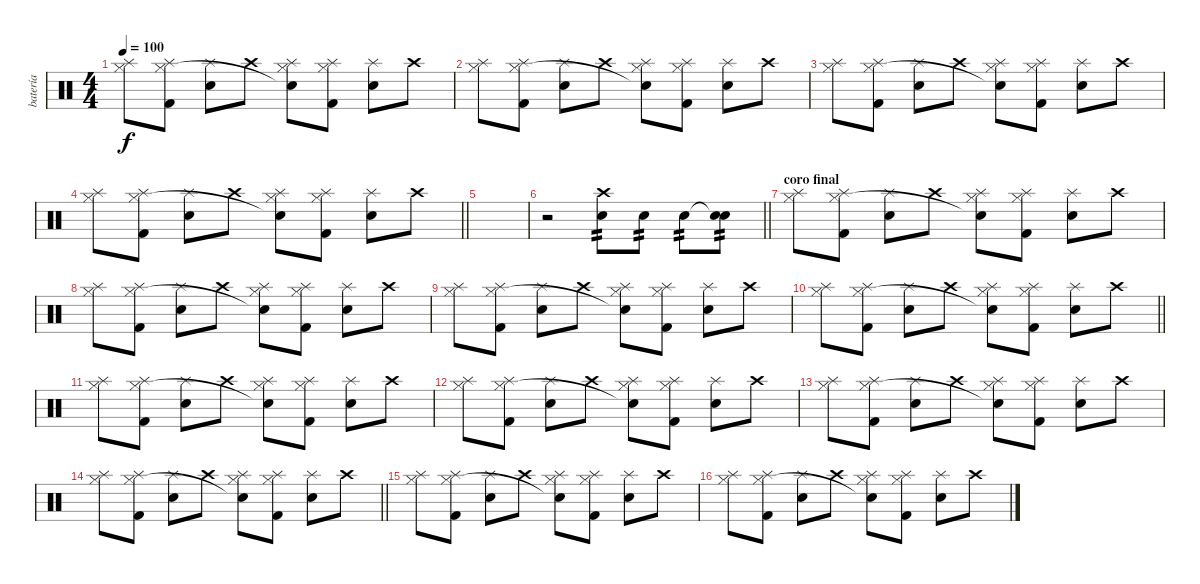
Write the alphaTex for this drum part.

\track ("batería" "batería") {instrument percussion}
\staff {score}
\articulation defaults
\ts (4 4)
\tempo 100
\clef neutral
\ks c
("Splash (hit)" "Hi-Hat (closed)").8{dy f} ("Kick (hit) 2" "Splash (hit)" "Hi-Hat (closed)").8 ("Splash (hit)" "Snare (hit) 2").8 "Crash high (hit)".8 ("Splash (hit)" "Hi-Hat (closed)" "Snare (hit)"{t}).8 ("Kick (hit) 2" "Splash (hit)" "Hi-Hat (closed)").8 ("Splash (hit)" "Snare (hit) 2").8 "Crash high (hit)".8 |
("Splash (hit)" "Hi-Hat (closed)").8 ("Kick (hit) 2" "Splash (hit)" "Hi-Hat (closed)").8 ("Splash (hit)" "Snare (hit) 2").8 "Crash high (hit)".8 ("Splash (hit)" "Hi-Hat (closed)" "Snare (hit)"{t}).8 ("Kick (hit) 2" "Splash (hit)" "Hi-Hat (closed)").8 ("Splash (hit)" "Snare (hit) 2").8 "Crash high (hit)".8 |
("Splash (hit)" "Hi-Hat (closed)").8 ("Kick (hit) 2" "Splash (hit)" "Hi-Hat (closed)").8 ("Splash (hit)" "Snare (hit) 2").8 "Crash high (hit)".8 ("Splash (hit)" "Hi-Hat (closed)" "Snare (hit)"{t}).8 ("Kick (hit) 2" "Splash (hit)" "Hi-Hat (closed)").8 ("Splash (hit)" "Snare (hit) 2").8 "Crash high (hit)".8 |
\barLineRight lightlight
("Splash (hit)" "Hi-Hat (closed)").8 ("Kick (hit) 2" "Splash (hit)" "Hi-Hat (closed)").8 ("Splash (hit)" "Snare (hit) 2").8 "Crash high (hit)".8 ("Splash (hit)" "Hi-Hat (closed)" "Snare (hit)"{t}).8 ("Kick (hit) 2" "Splash (hit)" "Hi-Hat (closed)").8 ("Splash (hit)" "Snare (hit) 2").8 "Crash high (hit)".8 |
|
\barLineRight lightlight
r.2 ("Crash high (hit)" "Snare (hit) 2").8{tp 2} "Snare (hit) 2".8{tp 2} "Snare (hit) 2".8{tp 2} ("Snare (hit)"{t} "Snare (hit) 2").8{tp 2} |
\section ("" "coro final")
("Splash (hit)" "Hi-Hat (closed)").8 ("Kick (hit) 2" "Splash (hit)" "Hi-Hat (closed)").8 ("Splash (hit)" "Snare (hit) 2").8 "Crash high (hit)".8 ("Splash (hit)" "Hi-Hat (closed)" "Snare (hit)"{t}).8 ("Kick (hit) 2" "Splash (hit)" "Hi-Hat (closed)").8 ("Splash (hit)" "Snare (hit) 2").8 "Crash high (hit)".8 |
("Splash (hit)" "Hi-Hat (closed)").8 ("Kick (hit) 2" "Splash (hit)" "Hi-Hat (closed)").8 ("Splash (hit)" "Snare (hit) 2").8 "Crash high (hit)".8 ("Splash (hit)" "Hi-Hat (closed)" "Snare (hit)"{t}).8 ("Kick (hit) 2" "Splash (hit)" "Hi-Hat (closed)").8 ("Splash (hit)" "Snare (hit) 2").8 "Crash high (hit)".8 |
("Splash (hit)" "Hi-Hat (closed)").8 ("Kick (hit) 2" "Splash (hit)" "Hi-Hat (closed)").8 ("Splash (hit)" "Snare (hit) 2").8 "Crash high (hit)".8 ("Splash (hit)" "Hi-Hat (closed)" "Snare (hit)"{t}).8 ("Kick (hit) 2" "Splash (hit)" "Hi-Hat (closed)").8 ("Splash (hit)" "Snare (hit) 2").8 "Crash high (hit)".8 |
\barLineRight lightlight
("Splash (hit)" "Hi-Hat (closed)").8 ("Kick (hit) 2" "Splash (hit)" "Hi-Hat (closed)").8 ("Splash (hit)" "Snare (hit) 2").8 "Crash high (hit)".8 ("Splash (hit)" "Hi-Hat (closed)" "Snare (hit)"{t}).8 ("Kick (hit) 2" "Splash (hit)" "Hi-Hat (closed)").8 ("Splash (hit)" "Snare (hit) 2").8 "Crash high (hit)".8 |
("Splash (hit)" "Hi-Hat (closed)").8 ("Kick (hit) 2" "Splash (hit)" "Hi-Hat (closed)").8 ("Splash (hit)" "Snare (hit) 2").8 "Crash high (hit)".8 ("Splash (hit)" "Hi-Hat (closed)" "Snare (hit)"{t}).8 ("Kick (hit) 2" "Splash (hit)" "Hi-Hat (closed)").8 ("Splash (hit)" "Snare (hit) 2").8 "Crash high (hit)".8 |
("Splash (hit)" "Hi-Hat (closed)").8 ("Kick (hit) 2" "Splash (hit)" "Hi-Hat (closed)").8 ("Splash (hit)" "Snare (hit) 2").8 "Crash high (hit)".8 ("Splash (hit)" "Hi-Hat (closed)" "Snare (hit)"{t}).8 ("Kick (hit) 2" "Splash (hit)" "Hi-Hat (closed)").8 ("Splash (hit)" "Snare (hit) 2").8 "Crash high (hit)".8 |
("Splash (hit)" "Hi-Hat (closed)").8 ("Kick (hit) 2" "Splash (hit)" "Hi-Hat (closed)").8 ("Splash (hit)" "Snare (hit) 2").8 "Crash high (hit)".8 ("Splash (hit)" "Hi-Hat (closed)" "Snare (hit)"{t}).8 ("Kick (hit) 2" "Splash (hit)" "Hi-Hat (closed)").8 ("Splash (hit)" "Snare (hit) 2").8 "Crash high (hit)".8 |
\barLineRight lightlight
("Splash (hit)" "Hi-Hat (closed)").8 ("Kick (hit) 2" "Splash (hit)" "Hi-Hat (closed)").8 ("Splash (hit)" "Snare (hit) 2").8 "Crash high (hit)".8 ("Splash (hit)" "Hi-Hat (closed)" "Snare (hit)"{t}).8 ("Kick (hit) 2" "Splash (hit)" "Hi-Hat (closed)").8 ("Splash (hit)" "Snare (hit) 2").8 "Crash high (hit)".8 |
("Splash (hit)" "Hi-Hat (closed)").8 ("Kick (hit) 2" "Splash (hit)" "Hi-Hat (closed)").8 ("Splash (hit)" "Snare (hit) 2").8 "Crash high (hit)".8 ("Splash (hit)" "Hi-Hat (closed)" "Snare (hit)"{t}).8 ("Kick (hit) 2" "Splash (hit)" "Hi-Hat (closed)").8 ("Splash (hit)" "Snare (hit) 2").8 "Crash high (hit)".8 |
("Splash (hit)" "Hi-Hat (closed)").8 ("Kick (hit) 2" "Splash (hit)" "Hi-Hat (closed)").8 ("Splash (hit)" "Snare (hit) 2").8 "Crash high (hit)".8 ("Splash (hit)" "Hi-Hat (closed)" "Snare (hit)"{t}).8 ("Kick (hit) 2" "Splash (hit)" "Hi-Hat (closed)").8 ("Splash (hit)" "Snare (hit) 2").8 "Crash high (hit)".8
